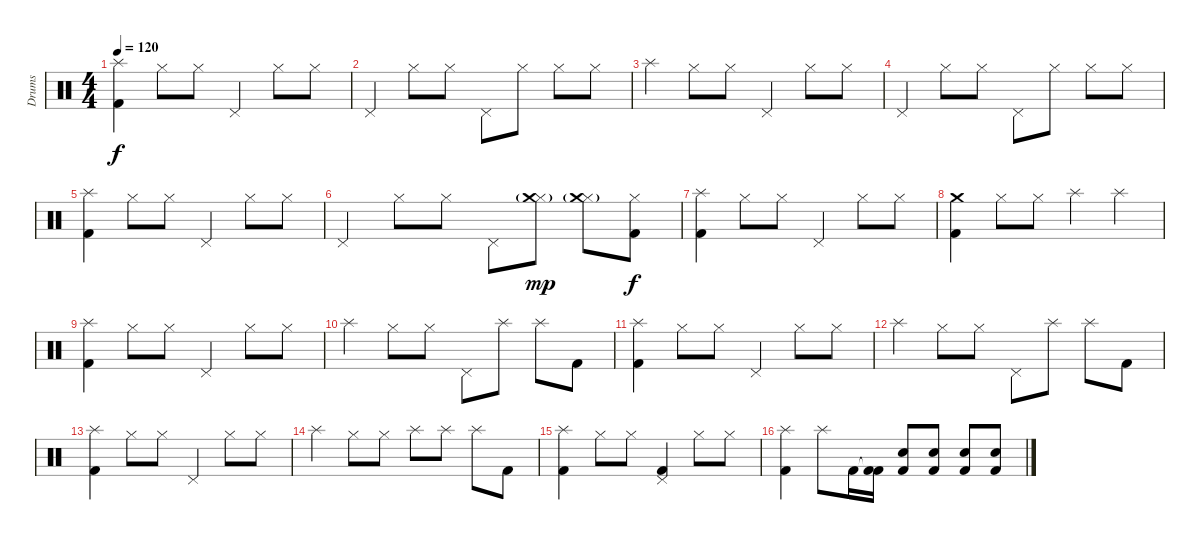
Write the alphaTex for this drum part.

\track ("Drums" "Drums") {instrument percussion}
\staff {score}
\articulation defaults
\ts (4 4)
\tempo 120
\clef neutral
\ks c
("Splash (hit)" "Kick (hit) 2").4{dy f} "Hi-Hat (closed)".8 "Hi-Hat (closed)".8 "Pedal Hi-Hat (hit)".4 "Hi-Hat (closed)".8 "Hi-Hat (closed)".8 |
"Pedal Hi-Hat (hit)".4 "Hi-Hat (closed)".8 "Hi-Hat (closed)".8 "Pedal Hi-Hat (hit)".8 "Hi-Hat (closed)".8 "Hi-Hat (closed)".8 "Hi-Hat (closed)".8 |
"Splash (hit)".4 "Hi-Hat (closed)".8 "Hi-Hat (closed)".8 "Pedal Hi-Hat (hit)".4 "Hi-Hat (closed)".8 "Hi-Hat (closed)".8 |
"Pedal Hi-Hat (hit)".4 "Hi-Hat (closed)".8 "Hi-Hat (closed)".8 "Pedal Hi-Hat (hit)".8 "Hi-Hat (closed)".8 "Hi-Hat (closed)".8 "Hi-Hat (closed)".8 |
("Splash (hit)" "Kick (hit) 2").4 "Hi-Hat (closed)".8 "Hi-Hat (closed)".8 "Pedal Hi-Hat (hit)".4 "Hi-Hat (closed)".8 "Hi-Hat (closed)".8 |
"Pedal Hi-Hat (hit)".4 "Hi-Hat (closed)".8 "Hi-Hat (closed)".8 "Pedal Hi-Hat (hit)".8 ("Hi-Hat (closed)" "Crash medium (hit)"{g}).8{dy mp} ("Hi-Hat (closed)" "Crash medium (hit)"{g}).8 ("Hi-Hat (closed)" "Kick (hit) 2").8{dy f} |
("Splash (hit)" "Kick (hit) 2").4 "Hi-Hat (closed)".8 "Hi-Hat (closed)".8 "Pedal Hi-Hat (hit)".4 "Hi-Hat (closed)".8 "Hi-Hat (closed)".8 |
("Crash medium (hit)" "Kick (hit) 2").4 "Hi-Hat (closed)".8 "Hi-Hat (closed)".8 "Splash (hit)".4 "Splash (hit)".4 |
("Splash (hit)" "Kick (hit) 2").4 "Hi-Hat (closed)".8 "Hi-Hat (closed)".8 "Pedal Hi-Hat (hit)".4 "Hi-Hat (closed)".8 "Hi-Hat (closed)".8 |
"Splash (hit)".4 "Hi-Hat (closed)".8 "Hi-Hat (closed)".8 "Pedal Hi-Hat (hit)".8 "Splash (hit)".8 "Splash (hit)".8 "Kick (hit) 2".8 |
("Splash (hit)" "Kick (hit) 2").4 "Hi-Hat (closed)".8 "Hi-Hat (closed)".8 "Pedal Hi-Hat (hit)".4 "Hi-Hat (closed)".8 "Hi-Hat (closed)".8 |
"Splash (hit)".4 "Hi-Hat (closed)".8 "Hi-Hat (closed)".8 "Pedal Hi-Hat (hit)".8 "Splash (hit)".8 "Splash (hit)".8 "Kick (hit) 2".8 |
("Splash (hit)" "Kick (hit) 2").4 "Hi-Hat (closed)".8 "Hi-Hat (closed)".8 "Pedal Hi-Hat (hit)".4 "Hi-Hat (closed)".8 "Hi-Hat (closed)".8 |
"Splash (hit)".4 "Hi-Hat (closed)".8 "Hi-Hat (closed)".8 "Splash (hit)".8 "Splash (hit)".8 "Splash (hit)".8 "Kick (hit) 2".8 |
("Splash (hit)" "Kick (hit) 2").4 "Hi-Hat (closed)".8 "Hi-Hat (closed)".8 ("Pedal Hi-Hat (hit)" "Kick (hit) 2").4 "Hi-Hat (closed)".8 "Hi-Hat (closed)".8 |
("Splash (hit)" "Kick (hit) 2").4 "Splash (hit)".8 "Kick (hit) 2".16 ("Kick (hit) 2"{t} "Kick (hit) 2").16 ("Snare (hit) 2" "Kick (hit) 2").8 ("Snare (hit) 2" "Kick (hit) 2").8 ("Snare (hit) 2" "Kick (hit) 2").8 ("Snare (hit) 2" "Kick (hit) 2").8
